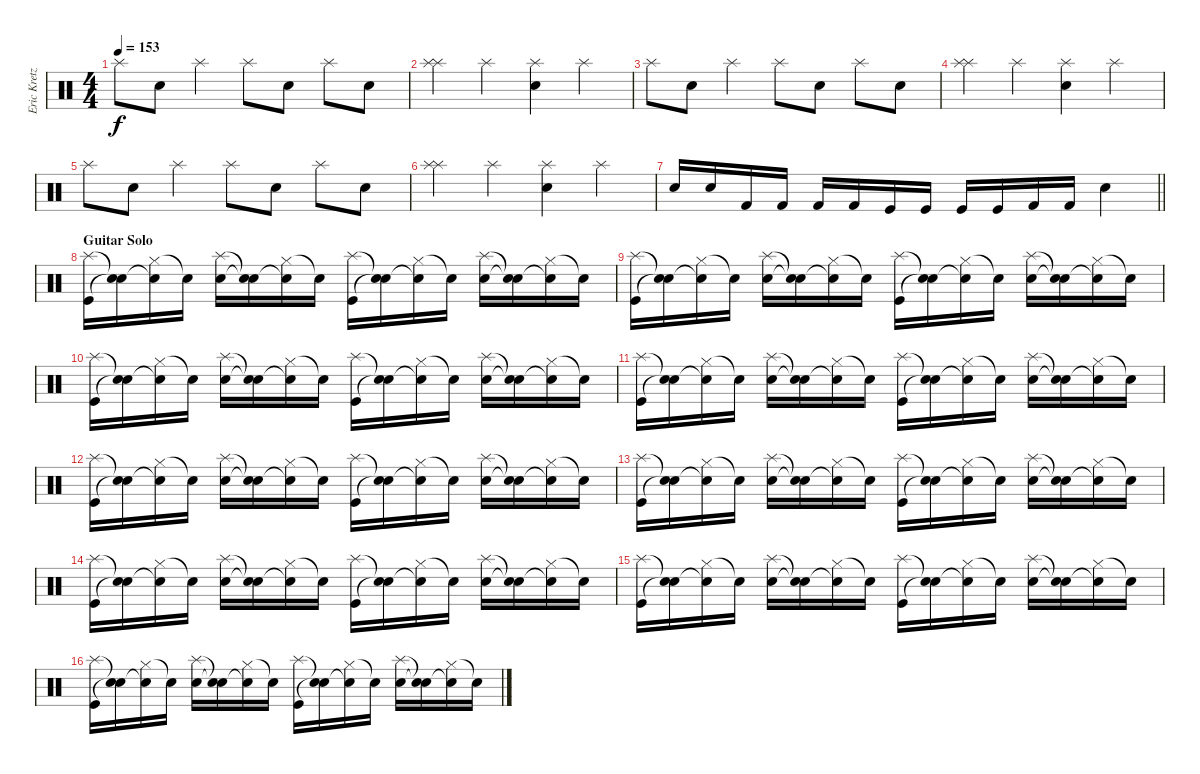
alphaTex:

\track ("Eric Kretz - Drums" "Eric Kretz") {instrument percussion}
\staff {score}
\articulation defaults
\ts (4 4)
\tempo 153
\clef neutral
\ks c "Splash (hit)".8{dy f} "Snare (hit) 2".8 "Splash (hit)".4 "Splash (hit)".8 "Snare (hit) 2".8 "Splash (hit)".8 "Snare (hit) 2".8
|
("Splash (hit)" "Splash (hit)").4 "Splash (hit)".4 ("Splash (hit)" "Snare (hit) 2").4 "Splash (hit)".4 |
"Splash (hit)".8 "Snare (hit) 2".8 "Splash (hit)".4 "Splash (hit)".8 "Snare (hit) 2".8 "Splash (hit)".8 "Snare (hit) 2".8 |
("Splash (hit)" "Splash (hit)").4 "Splash (hit)".4 ("Splash (hit)" "Snare (hit) 2").4 "Splash (hit)".4 |
"Splash (hit)".8 "Snare (hit) 2".8 "Splash (hit)".4 "Splash (hit)".8 "Snare (hit) 2".8 "Splash (hit)".8 "Snare (hit) 2".8 |
("Splash (hit)" "Splash (hit)").4 "Splash (hit)".4 ("Splash (hit)" "Snare (hit) 2").4 "Splash (hit)".4 |
\barLineRight lightlight "Snare (hit) 2".16 "Snare (hit) 2".16 "Kick (hit) 2".16 "Kick (hit) 2".16 "Kick (hit) 2".16 "Kick (hit) 2".16 "Kick (hit)".16 "Kick (hit)".16 "Kick (hit)".16 "Kick (hit)".16 "Kick (hit) 2".16 "Kick (hit) 2".16 "Snare (hit) 2".4
|
\section ("" "Guitar Solo")
("Kick (hit)" "Splash (hit)").16 ("Snare (hit)"{t} "Snare (hit)"{t}).16 ("Hi-Hat (closed)" "Snare (hit)"{t}).16 "Snare (hit)"{t}.16 ("Snare (hit) 2" "Splash (hit)").16 ("Snare (hit)"{t} "Snare (hit)"{t}).16 ("Hi-Hat (closed)" "Snare (hit)"{t}).16 "Snare (hit)"{t}.16 ("Kick (hit)" "Splash (hit)").16 ("Snare (hit)"{t} "Snare (hit)"{t}).16 ("Hi-Hat (closed)" "Snare (hit)"{t}).16 "Snare (hit)"{t}.16 ("Snare (hit) 2" "Splash (hit)").16 ("Snare (hit)"{t} "Snare (hit)"{t}).16 ("Hi-Hat (closed)" "Snare (hit)"{t}).16 "Snare (hit)"{t}.16 |
("Kick (hit)" "Splash (hit)").16 ("Snare (hit)"{t} "Snare (hit)"{t}).16 ("Hi-Hat (closed)" "Snare (hit)"{t}).16 "Snare (hit)"{t}.16 ("Snare (hit) 2" "Splash (hit)").16 ("Snare (hit)"{t} "Snare (hit)"{t}).16 ("Hi-Hat (closed)" "Snare (hit)"{t}).16 "Snare (hit)"{t}.16 ("Kick (hit)" "Splash (hit)").16 ("Snare (hit)"{t} "Snare (hit)"{t}).16 ("Hi-Hat (closed)" "Snare (hit)"{t}).16 "Snare (hit)"{t}.16 ("Snare (hit) 2" "Splash (hit)").16 ("Snare (hit)"{t} "Snare (hit)"{t}).16 ("Hi-Hat (closed)" "Snare (hit)"{t}).16 "Snare (hit)"{t}.16 |
("Kick (hit)" "Splash (hit)").16 ("Snare (hit)"{t} "Snare (hit)"{t}).16 ("Hi-Hat (closed)" "Snare (hit)"{t}).16 "Snare (hit)"{t}.16 ("Snare (hit) 2" "Splash (hit)").16 ("Snare (hit)"{t} "Snare (hit)"{t}).16 ("Hi-Hat (closed)" "Snare (hit)"{t}).16 "Snare (hit)"{t}.16 ("Kick (hit)" "Splash (hit)").16 ("Snare (hit)"{t} "Snare (hit)"{t}).16 ("Hi-Hat (closed)" "Snare (hit)"{t}).16 "Snare (hit)"{t}.16 ("Snare (hit) 2" "Splash (hit)").16 ("Snare (hit)"{t} "Snare (hit)"{t}).16 ("Hi-Hat (closed)" "Snare (hit)"{t}).16 "Snare (hit)"{t}.16 |
("Kick (hit)" "Splash (hit)").16 ("Snare (hit)"{t} "Snare (hit)"{t}).16 ("Hi-Hat (closed)" "Snare (hit)"{t}).16 "Snare (hit)"{t}.16 ("Snare (hit) 2" "Splash (hit)").16 ("Snare (hit)"{t} "Snare (hit)"{t}).16 ("Hi-Hat (closed)" "Snare (hit)"{t}).16 "Snare (hit)"{t}.16 ("Kick (hit)" "Splash (hit)").16 ("Snare (hit)"{t} "Snare (hit)"{t}).16 ("Hi-Hat (closed)" "Snare (hit)"{t}).16 "Snare (hit)"{t}.16 ("Snare (hit) 2" "Splash (hit)").16 ("Snare (hit)"{t} "Snare (hit)"{t}).16 ("Hi-Hat (closed)" "Snare (hit)"{t}).16 "Snare (hit)"{t}.16 |
("Kick (hit)" "Splash (hit)").16 ("Snare (hit)"{t} "Snare (hit)"{t}).16 ("Hi-Hat (closed)" "Snare (hit)"{t}).16 "Snare (hit)"{t}.16 ("Snare (hit) 2" "Splash (hit)").16 ("Snare (hit)"{t} "Snare (hit)"{t}).16 ("Hi-Hat (closed)" "Snare (hit)"{t}).16 "Snare (hit)"{t}.16 ("Kick (hit)" "Splash (hit)").16 ("Snare (hit)"{t} "Snare (hit)"{t}).16 ("Hi-Hat (closed)" "Snare (hit)"{t}).16 "Snare (hit)"{t}.16 ("Snare (hit) 2" "Splash (hit)").16 ("Snare (hit)"{t} "Snare (hit)"{t}).16 ("Hi-Hat (closed)" "Snare (hit)"{t}).16 "Snare (hit)"{t}.16 |
("Kick (hit)" "Splash (hit)").16 ("Snare (hit)"{t} "Snare (hit)"{t}).16 ("Hi-Hat (closed)" "Snare (hit)"{t}).16 "Snare (hit)"{t}.16 ("Snare (hit) 2" "Splash (hit)").16 ("Snare (hit)"{t} "Snare (hit)"{t}).16 ("Hi-Hat (closed)" "Snare (hit)"{t}).16 "Snare (hit)"{t}.16 ("Kick (hit)" "Splash (hit)").16 ("Snare (hit)"{t} "Snare (hit)"{t}).16 ("Hi-Hat (closed)" "Snare (hit)"{t}).16 "Snare (hit)"{t}.16 ("Snare (hit) 2" "Splash (hit)").16 ("Snare (hit)"{t} "Snare (hit)"{t}).16 ("Hi-Hat (closed)" "Snare (hit)"{t}).16 "Snare (hit)"{t}.16 |
("Kick (hit)" "Splash (hit)").16 ("Snare (hit)"{t} "Snare (hit)"{t}).16 ("Hi-Hat (closed)" "Snare (hit)"{t}).16 "Snare (hit)"{t}.16 ("Snare (hit) 2" "Splash (hit)").16 ("Snare (hit)"{t} "Snare (hit)"{t}).16 ("Hi-Hat (closed)" "Snare (hit)"{t}).16 "Snare (hit)"{t}.16 ("Kick (hit)" "Splash (hit)").16 ("Snare (hit)"{t} "Snare (hit)"{t}).16 ("Hi-Hat (closed)" "Snare (hit)"{t}).16 "Snare (hit)"{t}.16 ("Snare (hit) 2" "Splash (hit)").16 ("Snare (hit)"{t} "Snare (hit)"{t}).16 ("Hi-Hat (closed)" "Snare (hit)"{t}).16 "Snare (hit)"{t}.16 |
("Kick (hit)" "Splash (hit)").16 ("Snare (hit)"{t} "Snare (hit)"{t}).16 ("Hi-Hat (closed)" "Snare (hit)"{t}).16 "Snare (hit)"{t}.16 ("Snare (hit) 2" "Splash (hit)").16 ("Snare (hit)"{t} "Snare (hit)"{t}).16 ("Hi-Hat (closed)" "Snare (hit)"{t}).16 "Snare (hit)"{t}.16 ("Kick (hit)" "Splash (hit)").16 ("Snare (hit)"{t} "Snare (hit)"{t}).16 ("Hi-Hat (closed)" "Snare (hit)"{t}).16 "Snare (hit)"{t}.16 ("Snare (hit) 2" "Splash (hit)").16 ("Snare (hit)"{t} "Snare (hit)"{t}).16 ("Hi-Hat (closed)" "Snare (hit)"{t}).16 "Snare (hit)"{t}.16 |
("Kick (hit)" "Splash (hit)").16 ("Snare (hit)"{t} "Snare (hit)"{t}).16 ("Hi-Hat (closed)" "Snare (hit)"{t}).16 "Snare (hit)"{t}.16 ("Snare (hit) 2" "Splash (hit)").16 ("Snare (hit)"{t} "Snare (hit)"{t}).16 ("Hi-Hat (closed)" "Snare (hit)"{t}).16 "Snare (hit)"{t}.16 ("Kick (hit)" "Splash (hit)").16 ("Snare (hit)"{t} "Snare (hit)"{t}).16 ("Hi-Hat (closed)" "Snare (hit)"{t}).16 "Snare (hit)"{t}.16 ("Snare (hit) 2" "Splash (hit)").16 ("Snare (hit)"{t} "Snare (hit)"{t}).16 ("Hi-Hat (closed)" "Snare (hit)"{t}).16 "Snare (hit)"{t}.16
